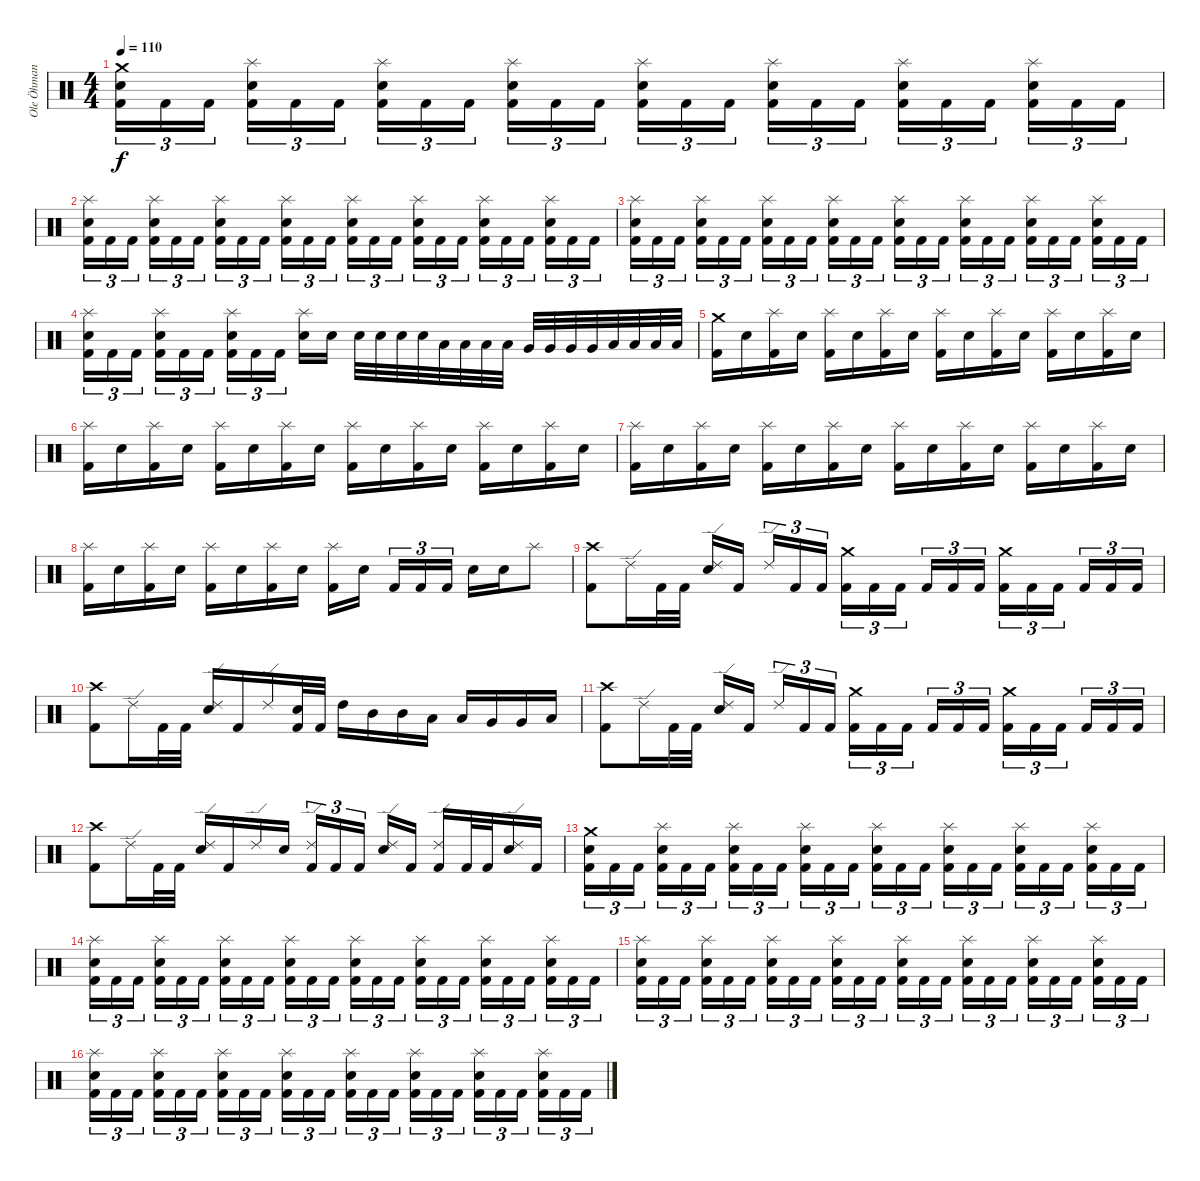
\track ("Ole Öhman" "Ole Öhman") {instrument percussion}
\staff {score}
\articulation defaults
\ts (4 4)
\tempo 110
\clef neutral
\ks c
("Crash medium (hit)" "Electric Snare (hit)" "Kick (hit) 2").16{tu (3 2) dy f} "Kick (hit) 2".16{tu (3 2)} "Kick (hit) 2".16{tu (3 2) beam splitsecondary} ("Splash (hit)" "Electric Snare (hit)" "Kick (hit) 2").16{tu (3 2)} "Kick (hit) 2".16{tu (3 2)} "Kick (hit) 2".16{tu (3 2)} ("Splash (hit)" "Electric Snare (hit)" "Kick (hit) 2").16{tu (3 2)} "Kick (hit) 2".16{tu (3 2)} "Kick (hit) 2".16{tu (3 2) beam splitsecondary} ("Splash (hit)" "Electric Snare (hit)" "Kick (hit) 2").16{tu (3 2)} "Kick (hit) 2".16{tu (3 2)} "Kick (hit) 2".16{tu (3 2)} ("Splash (hit)" "Electric Snare (hit)" "Kick (hit) 2").16{tu (3 2)} "Kick (hit) 2".16{tu (3 2)} "Kick (hit) 2".16{tu (3 2) beam splitsecondary} ("Splash (hit)" "Electric Snare (hit)" "Kick (hit) 2").16{tu (3 2)} "Kick (hit) 2".16{tu (3 2)} "Kick (hit) 2".16{tu (3 2)} ("Splash (hit)" "Electric Snare (hit)" "Kick (hit) 2").16{tu (3 2)} "Kick (hit) 2".16{tu (3 2)} "Kick (hit) 2".16{tu (3 2) beam splitsecondary} ("Splash (hit)" "Electric Snare (hit)" "Kick (hit) 2").16{tu (3 2)} "Kick (hit) 2".16{tu (3 2)} "Kick (hit) 2".16{tu (3 2)} |
("Splash (hit)" "Electric Snare (hit)" "Kick (hit) 2").16{tu (3 2)} "Kick (hit) 2".16{tu (3 2)} "Kick (hit) 2".16{tu (3 2) beam splitsecondary} ("Splash (hit)" "Electric Snare (hit)" "Kick (hit) 2").16{tu (3 2)} "Kick (hit) 2".16{tu (3 2)} "Kick (hit) 2".16{tu (3 2)} ("Splash (hit)" "Electric Snare (hit)" "Kick (hit) 2").16{tu (3 2)} "Kick (hit) 2".16{tu (3 2)} "Kick (hit) 2".16{tu (3 2) beam splitsecondary} ("Splash (hit)" "Electric Snare (hit)" "Kick (hit) 2").16{tu (3 2)} "Kick (hit) 2".16{tu (3 2)} "Kick (hit) 2".16{tu (3 2)} ("Splash (hit)" "Electric Snare (hit)" "Kick (hit) 2").16{tu (3 2)} "Kick (hit) 2".16{tu (3 2)} "Kick (hit) 2".16{tu (3 2) beam splitsecondary} ("Splash (hit)" "Electric Snare (hit)" "Kick (hit) 2").16{tu (3 2)} "Kick (hit) 2".16{tu (3 2)} "Kick (hit) 2".16{tu (3 2)} ("Splash (hit)" "Electric Snare (hit)" "Kick (hit) 2").16{tu (3 2)} "Kick (hit) 2".16{tu (3 2)} "Kick (hit) 2".16{tu (3 2) beam splitsecondary} ("Splash (hit)" "Electric Snare (hit)" "Kick (hit) 2").16{tu (3 2)} "Kick (hit) 2".16{tu (3 2)} "Kick (hit) 2".16{tu (3 2)} |
("Splash (hit)" "Electric Snare (hit)" "Kick (hit) 2").16{tu (3 2)} "Kick (hit) 2".16{tu (3 2)} "Kick (hit) 2".16{tu (3 2) beam splitsecondary} ("Splash (hit)" "Electric Snare (hit)" "Kick (hit) 2").16{tu (3 2)} "Kick (hit) 2".16{tu (3 2)} "Kick (hit) 2".16{tu (3 2)} ("Splash (hit)" "Electric Snare (hit)" "Kick (hit) 2").16{tu (3 2)} "Kick (hit) 2".16{tu (3 2)} "Kick (hit) 2".16{tu (3 2) beam splitsecondary} ("Splash (hit)" "Electric Snare (hit)" "Kick (hit) 2").16{tu (3 2)} "Kick (hit) 2".16{tu (3 2)} "Kick (hit) 2".16{tu (3 2)} ("Splash (hit)" "Electric Snare (hit)" "Kick (hit) 2").16{tu (3 2)} "Kick (hit) 2".16{tu (3 2)} "Kick (hit) 2".16{tu (3 2) beam splitsecondary} ("Splash (hit)" "Electric Snare (hit)" "Kick (hit) 2").16{tu (3 2)} "Kick (hit) 2".16{tu (3 2)} "Kick (hit) 2".16{tu (3 2)} ("Splash (hit)" "Electric Snare (hit)" "Kick (hit) 2").16{tu (3 2)} "Kick (hit) 2".16{tu (3 2)} "Kick (hit) 2".16{tu (3 2) beam splitsecondary} ("Splash (hit)" "Electric Snare (hit)" "Kick (hit) 2").16{tu (3 2)} "Kick (hit) 2".16{tu (3 2)} "Kick (hit) 2".16{tu (3 2)} |
("Splash (hit)" "Electric Snare (hit)" "Kick (hit) 2").16{tu (3 2)} "Kick (hit) 2".16{tu (3 2)} "Kick (hit) 2".16{tu (3 2) beam splitsecondary} ("Splash (hit)" "Electric Snare (hit)" "Kick (hit) 2").16{tu (3 2)} "Kick (hit) 2".16{tu (3 2)} "Kick (hit) 2".16{tu (3 2)} ("Splash (hit)" "Electric Snare (hit)" "Kick (hit) 2").16{tu (3 2)} "Kick (hit) 2".16{tu (3 2)} "Kick (hit) 2".16{tu (3 2) beam splitsecondary} ("Splash (hit)" "Electric Snare (hit)").16 "Electric Snare (hit)".16 "Electric Snare (hit)".32 "Electric Snare (hit)".32 "Electric Snare (hit)".32 "Electric Snare (hit)".32 "Low Tom (hit)".32 "Low Tom (hit)".32 "Low Tom (hit)".32 "Low Tom (hit)".32 "Very Low Tom (hit)".32 "Very Low Tom (hit)".32 "Very Low Tom (hit)".32 "Very Low Tom (hit)".32 "Low Floor Tom (hit)".32 "Low Floor Tom (hit)".32 "Low Floor Tom (hit)".32 "Low Floor Tom (hit)".32 |
("Crash medium (hit)" "Kick (hit) 2").16 "Electric Snare (hit)".16 ("Splash (hit)" "Kick (hit) 2").16 "Electric Snare (hit)".16 ("Splash (hit)" "Kick (hit) 2").16 "Electric Snare (hit)".16 ("Splash (hit)" "Kick (hit) 2").16 "Electric Snare (hit)".16 ("Splash (hit)" "Kick (hit) 2").16 "Electric Snare (hit)".16 ("Splash (hit)" "Kick (hit) 2").16 "Electric Snare (hit)".16 ("Splash (hit)" "Kick (hit) 2").16 "Electric Snare (hit)".16 ("Splash (hit)" "Kick (hit) 2").16 "Electric Snare (hit)".16 |
("Splash (hit)" "Kick (hit) 2").16 "Electric Snare (hit)".16 ("Splash (hit)" "Kick (hit) 2").16 "Electric Snare (hit)".16 ("Splash (hit)" "Kick (hit) 2").16 "Electric Snare (hit)".16 ("Splash (hit)" "Kick (hit) 2").16 "Electric Snare (hit)".16 ("Splash (hit)" "Kick (hit) 2").16 "Electric Snare (hit)".16 ("Splash (hit)" "Kick (hit) 2").16 "Electric Snare (hit)".16 ("Splash (hit)" "Kick (hit) 2").16 "Electric Snare (hit)".16 ("Splash (hit)" "Kick (hit) 2").16 "Electric Snare (hit)".16 |
("Splash (hit)" "Kick (hit) 2").16 "Electric Snare (hit)".16 ("Splash (hit)" "Kick (hit) 2").16 "Electric Snare (hit)".16 ("Splash (hit)" "Kick (hit) 2").16 "Electric Snare (hit)".16 ("Splash (hit)" "Kick (hit) 2").16 "Electric Snare (hit)".16 ("Splash (hit)" "Kick (hit) 2").16 "Electric Snare (hit)".16 ("Splash (hit)" "Kick (hit) 2").16 "Electric Snare (hit)".16 ("Splash (hit)" "Kick (hit) 2").16 "Electric Snare (hit)".16 ("Splash (hit)" "Kick (hit) 2").16 "Electric Snare (hit)".16 |
("Splash (hit)" "Kick (hit) 2").16 "Electric Snare (hit)".16 ("Splash (hit)" "Kick (hit) 2").16 "Electric Snare (hit)".16 ("Splash (hit)" "Kick (hit) 2").16 "Electric Snare (hit)".16 ("Splash (hit)" "Kick (hit) 2").16 "Electric Snare (hit)".16 ("Splash (hit)" "Kick (hit) 2").16 "Electric Snare (hit)".16{beam splitsecondary} "Kick (hit) 2".16{tu (3 2)} "Kick (hit) 2".16{tu (3 2)} "Kick (hit) 2".16{tu (3 2)} "Electric Snare (hit)".16 "Electric Snare (hit)".16 "Splash (hit)".8 |
("Crash high (hit)" "Kick (hit) 2").8 "Ride (edge) 2".16 "Kick (hit) 2".32 "Kick (hit) 2".32 ("Ride (edge) 2" "Electric Snare (hit)").16 "Kick (hit) 2".16{beam splitsecondary} "Ride (edge) 2".16{tu (3 2)} "Kick (hit) 2".16{tu (3 2)} "Kick (hit) 2".16{tu (3 2)} ("Crash medium (hit)" "Kick (hit) 2").16{tu (3 2)} "Kick (hit) 2".16{tu (3 2)} "Kick (hit) 2".16{tu (3 2) beam splitsecondary} "Kick (hit) 2".16{tu (3 2)} "Kick (hit) 2".16{tu (3 2)} "Kick (hit) 2".16{tu (3 2)} ("Crash medium (hit)" "Kick (hit) 2").16{tu (3 2)} "Kick (hit) 2".16{tu (3 2)} "Kick (hit) 2".16{tu (3 2) beam splitsecondary} "Kick (hit) 2".16{tu (3 2)} "Kick (hit) 2".16{tu (3 2)} "Kick (hit) 2".16{tu (3 2)} |
("Crash high (hit)" "Kick (hit) 2").8 "Ride (edge) 2".16 "Kick (hit) 2".32 "Kick (hit) 2".32 ("Ride (edge) 2" "Electric Snare (hit)").16 "Kick (hit) 2".16 "Ride (edge) 2".16 ("Electric Snare (hit)" "Kick (hit) 2").32 "Kick (hit) 2".32 "High Tom (hit)".16 "Mid Tom (hit)".16 "Mid Tom (hit)".16 "Low Tom (hit)".16 "Low Tom (hit)".16 "Very Low Tom (hit)".16 "Very Low Tom (hit)".16 "Low Floor Tom (hit)".16 |
("Crash high (hit)" "Kick (hit) 2").8 "Ride (edge) 2".16 "Kick (hit) 2".32 "Kick (hit) 2".32 ("Ride (edge) 2" "Electric Snare (hit)").16 "Kick (hit) 2".16{beam splitsecondary} "Ride (edge) 2".16{tu (3 2)} "Kick (hit) 2".16{tu (3 2)} "Kick (hit) 2".16{tu (3 2)} ("Crash medium (hit)" "Kick (hit) 2").16{tu (3 2)} "Kick (hit) 2".16{tu (3 2)} "Kick (hit) 2".16{tu (3 2) beam splitsecondary} "Kick (hit) 2".16{tu (3 2)} "Kick (hit) 2".16{tu (3 2)} "Kick (hit) 2".16{tu (3 2)} ("Crash medium (hit)" "Kick (hit) 2").16{tu (3 2)} "Kick (hit) 2".16{tu (3 2)} "Kick (hit) 2".16{tu (3 2) beam splitsecondary} "Kick (hit) 2".16{tu (3 2)} "Kick (hit) 2".16{tu (3 2)} "Kick (hit) 2".16{tu (3 2)} |
("Crash high (hit)" "Kick (hit) 2").8 "Ride (edge) 2".16 "Kick (hit) 2".32 "Kick (hit) 2".32 ("Ride (edge) 2" "Electric Snare (hit)").16 "Kick (hit) 2".16 "Ride (edge) 2".16 "Electric Snare (hit)".16 ("Ride (edge) 2" "Kick (hit) 2").16{tu (3 2)} "Kick (hit) 2".16{tu (3 2)} "Kick (hit) 2".16{tu (3 2) beam splitsecondary} ("Ride (edge) 2" "Electric Snare (hit)").16 "Kick (hit) 2".16 ("Ride (edge) 2" "Kick (hit) 2").16 "Kick (hit) 2".32 "Kick (hit) 2".32 ("Ride (edge) 2" "Electric Snare (hit)").16 "Kick (hit) 2".16 |
("Crash medium (hit)" "Electric Snare (hit)" "Kick (hit) 2").16{tu (3 2)} "Kick (hit) 2".16{tu (3 2)} "Kick (hit) 2".16{tu (3 2) beam splitsecondary} ("Splash (hit)" "Electric Snare (hit)" "Kick (hit) 2").16{tu (3 2)} "Kick (hit) 2".16{tu (3 2)} "Kick (hit) 2".16{tu (3 2)} ("Splash (hit)" "Electric Snare (hit)" "Kick (hit) 2").16{tu (3 2)} "Kick (hit) 2".16{tu (3 2)} "Kick (hit) 2".16{tu (3 2) beam splitsecondary} ("Splash (hit)" "Electric Snare (hit)" "Kick (hit) 2").16{tu (3 2)} "Kick (hit) 2".16{tu (3 2)} "Kick (hit) 2".16{tu (3 2)} ("Splash (hit)" "Electric Snare (hit)" "Kick (hit) 2").16{tu (3 2)} "Kick (hit) 2".16{tu (3 2)} "Kick (hit) 2".16{tu (3 2) beam splitsecondary} ("Splash (hit)" "Electric Snare (hit)" "Kick (hit) 2").16{tu (3 2)} "Kick (hit) 2".16{tu (3 2)} "Kick (hit) 2".16{tu (3 2)} ("Splash (hit)" "Electric Snare (hit)" "Kick (hit) 2").16{tu (3 2)} "Kick (hit) 2".16{tu (3 2)} "Kick (hit) 2".16{tu (3 2) beam splitsecondary} ("Splash (hit)" "Electric Snare (hit)" "Kick (hit) 2").16{tu (3 2)} "Kick (hit) 2".16{tu (3 2)} "Kick (hit) 2".16{tu (3 2)} |
("Splash (hit)" "Electric Snare (hit)" "Kick (hit) 2").16{tu (3 2)} "Kick (hit) 2".16{tu (3 2)} "Kick (hit) 2".16{tu (3 2) beam splitsecondary} ("Splash (hit)" "Electric Snare (hit)" "Kick (hit) 2").16{tu (3 2)} "Kick (hit) 2".16{tu (3 2)} "Kick (hit) 2".16{tu (3 2)} ("Splash (hit)" "Electric Snare (hit)" "Kick (hit) 2").16{tu (3 2)} "Kick (hit) 2".16{tu (3 2)} "Kick (hit) 2".16{tu (3 2) beam splitsecondary} ("Splash (hit)" "Electric Snare (hit)" "Kick (hit) 2").16{tu (3 2)} "Kick (hit) 2".16{tu (3 2)} "Kick (hit) 2".16{tu (3 2)} ("Splash (hit)" "Electric Snare (hit)" "Kick (hit) 2").16{tu (3 2)} "Kick (hit) 2".16{tu (3 2)} "Kick (hit) 2".16{tu (3 2) beam splitsecondary} ("Splash (hit)" "Electric Snare (hit)" "Kick (hit) 2").16{tu (3 2)} "Kick (hit) 2".16{tu (3 2)} "Kick (hit) 2".16{tu (3 2)} ("Splash (hit)" "Electric Snare (hit)" "Kick (hit) 2").16{tu (3 2)} "Kick (hit) 2".16{tu (3 2)} "Kick (hit) 2".16{tu (3 2) beam splitsecondary} ("Splash (hit)" "Electric Snare (hit)" "Kick (hit) 2").16{tu (3 2)} "Kick (hit) 2".16{tu (3 2)} "Kick (hit) 2".16{tu (3 2)} |
("Splash (hit)" "Electric Snare (hit)" "Kick (hit) 2").16{tu (3 2)} "Kick (hit) 2".16{tu (3 2)} "Kick (hit) 2".16{tu (3 2) beam splitsecondary} ("Splash (hit)" "Electric Snare (hit)" "Kick (hit) 2").16{tu (3 2)} "Kick (hit) 2".16{tu (3 2)} "Kick (hit) 2".16{tu (3 2)} ("Splash (hit)" "Electric Snare (hit)" "Kick (hit) 2").16{tu (3 2)} "Kick (hit) 2".16{tu (3 2)} "Kick (hit) 2".16{tu (3 2) beam splitsecondary} ("Splash (hit)" "Electric Snare (hit)" "Kick (hit) 2").16{tu (3 2)} "Kick (hit) 2".16{tu (3 2)} "Kick (hit) 2".16{tu (3 2)} ("Splash (hit)" "Electric Snare (hit)" "Kick (hit) 2").16{tu (3 2)} "Kick (hit) 2".16{tu (3 2)} "Kick (hit) 2".16{tu (3 2) beam splitsecondary} ("Splash (hit)" "Electric Snare (hit)" "Kick (hit) 2").16{tu (3 2)} "Kick (hit) 2".16{tu (3 2)} "Kick (hit) 2".16{tu (3 2)} ("Splash (hit)" "Electric Snare (hit)" "Kick (hit) 2").16{tu (3 2)} "Kick (hit) 2".16{tu (3 2)} "Kick (hit) 2".16{tu (3 2) beam splitsecondary} ("Splash (hit)" "Electric Snare (hit)" "Kick (hit) 2").16{tu (3 2)} "Kick (hit) 2".16{tu (3 2)} "Kick (hit) 2".16{tu (3 2)} |
("Splash (hit)" "Electric Snare (hit)" "Kick (hit) 2").16{tu (3 2)} "Kick (hit) 2".16{tu (3 2)} "Kick (hit) 2".16{tu (3 2) beam splitsecondary} ("Splash (hit)" "Electric Snare (hit)" "Kick (hit) 2").16{tu (3 2)} "Kick (hit) 2".16{tu (3 2)} "Kick (hit) 2".16{tu (3 2)} ("Splash (hit)" "Electric Snare (hit)" "Kick (hit) 2").16{tu (3 2)} "Kick (hit) 2".16{tu (3 2)} "Kick (hit) 2".16{tu (3 2) beam splitsecondary} ("Splash (hit)" "Electric Snare (hit)" "Kick (hit) 2").16{tu (3 2)} "Kick (hit) 2".16{tu (3 2)} "Kick (hit) 2".16{tu (3 2)} ("Splash (hit)" "Electric Snare (hit)" "Kick (hit) 2").16{tu (3 2)} "Kick (hit) 2".16{tu (3 2)} "Kick (hit) 2".16{tu (3 2) beam splitsecondary} ("Splash (hit)" "Electric Snare (hit)" "Kick (hit) 2").16{tu (3 2)} "Kick (hit) 2".16{tu (3 2)} "Kick (hit) 2".16{tu (3 2)} ("Splash (hit)" "Electric Snare (hit)" "Kick (hit) 2").16{tu (3 2)} "Kick (hit) 2".16{tu (3 2)} "Kick (hit) 2".16{tu (3 2) beam splitsecondary} ("Splash (hit)" "Electric Snare (hit)" "Kick (hit) 2").16{tu (3 2)} "Kick (hit) 2".16{tu (3 2)} "Kick (hit) 2".16{tu (3 2)}
